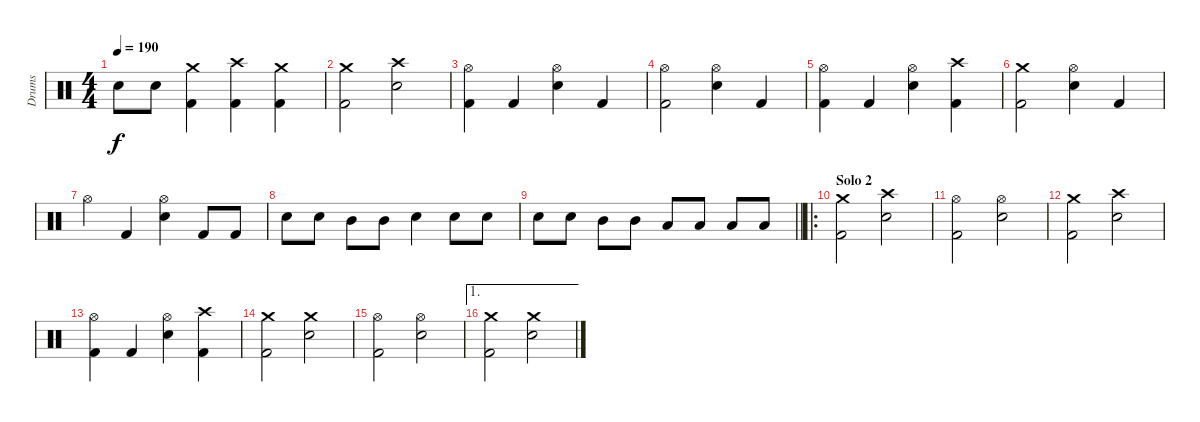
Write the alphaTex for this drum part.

\track ("Drums" "Drums") {instrument percussion}
\staff {score}
\articulation defaults
\ts (4 4)
\tempo 190
\clef neutral
\ks c "Snare (hit) 2".8{dy f} "Snare (hit) 2".8
("Crash medium (hit)" "Kick (hit) 2").4 ("Crash high (hit)" "Kick (hit) 2").4 ("Crash medium (hit)" "Kick (hit) 2").4 |
("Crash medium (hit)" "Kick (hit) 2").2 ("Crash high (hit)" "Snare (hit) 2").2 |
("Hi-Hat (open)" "Kick (hit) 2").4 "Kick (hit) 2".4 ("Hi-Hat (open)" "Snare (hit) 2").4 "Kick (hit) 2".4 |
("Hi-Hat (open)" "Kick (hit) 2").2 ("Hi-Hat (open)" "Snare (hit) 2").4 "Kick (hit) 2".4 |
("Hi-Hat (open)" "Kick (hit) 2").4 "Kick (hit) 2".4 ("Hi-Hat (open)" "Snare (hit) 2").4 ("Crash high (hit)" "Kick (hit) 2").4 |
("Crash medium (hit)" "Kick (hit) 2").2 ("Hi-Hat (open)" "Snare (hit) 2").4 "Kick (hit) 2".4 |
"Hi-Hat (open)".4 "Kick (hit) 2".4 ("Hi-Hat (open)" "Snare (hit) 2").4 "Kick (hit) 2".8 "Kick (hit) 2".8 |
"Snare (hit) 2".8 "Snare (hit) 2".8 "Mid Tom (hit)".8 "Mid Tom (hit)".8 "Snare (hit) 2".4 "Snare (hit) 2".8 "Snare (hit) 2".8 |
\barLineRight lightlight "Snare (hit) 2".8 "Snare (hit) 2".8 "Mid Tom (hit)".8 "Mid Tom (hit)".8 "Low Tom (hit)".8 "Low Tom (hit)".8 "Low Floor Tom (hit)".8 "Low Floor Tom (hit)".8
|
\ro
\section ("" "Solo 2")
("Crash medium (hit)" "Kick (hit) 2").2 ("Crash high (hit)" "Snare (hit) 2").2 |
("Hi-Hat (open)" "Kick (hit) 2").2 ("Hi-Hat (open)" "Snare (hit) 2").2 |
("Crash medium (hit)" "Kick (hit) 2").2 ("Crash high (hit)" "Snare (hit) 2").2 |
("Hi-Hat (open)" "Kick (hit) 2").4 "Kick (hit) 2".4 ("Hi-Hat (open)" "Snare (hit) 2").4 ("Crash high (hit)" "Kick (hit) 2").4 |
("Crash medium (hit)" "Kick (hit) 2").2 ("Crash medium (hit)" "Snare (hit) 2").2 |
("Hi-Hat (open)" "Kick (hit) 2").2 ("Hi-Hat (open)" "Snare (hit) 2").2 |
\ae 1
("Crash medium (hit)" "Kick (hit) 2").2 ("Crash medium (hit)" "Snare (hit) 2").2
